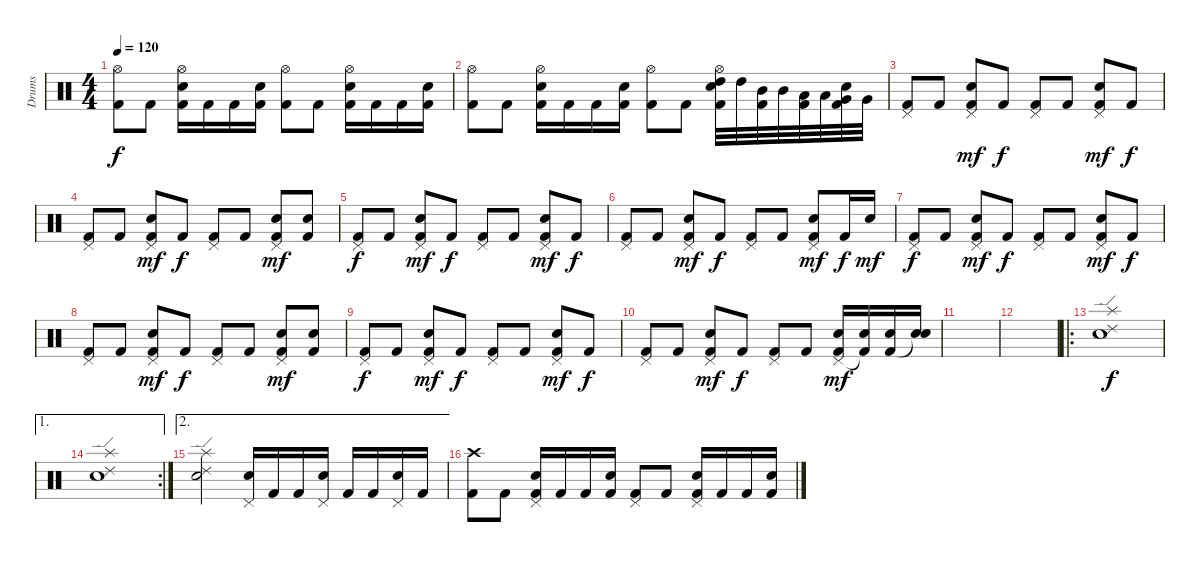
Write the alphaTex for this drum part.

\track ("Drums" "Drums") {instrument percussion}
\staff {score}
\articulation defaults
\ts (4 4)
\tempo 120
\clef neutral
\ks c
("Hi-Hat (open)" "Kick (hit) 2").8{dy f} "Kick (hit) 2".8 ("Hi-Hat (open)" "Electric Snare (hit)" "Kick (hit) 2").16 "Kick (hit) 2".16 "Kick (hit) 2".16 ("Electric Snare (hit)" "Kick (hit) 2").16 ("Hi-Hat (open)" "Kick (hit) 2").8 "Kick (hit) 2".8 ("Hi-Hat (open)" "Electric Snare (hit)" "Kick (hit) 2").16 "Kick (hit) 2".16 "Kick (hit) 2".16 ("Electric Snare (hit)" "Kick (hit) 2").16 |
("Hi-Hat (open)" "Kick (hit) 2").8 "Kick (hit) 2".8 ("Hi-Hat (open)" "Electric Snare (hit)" "Kick (hit) 2").16 "Kick (hit) 2".16 "Kick (hit) 2".16 ("Electric Snare (hit)" "Kick (hit) 2").16 ("Hi-Hat (open)" "Kick (hit) 2").8 "Kick (hit) 2".8 ("Hi-Hat (open)" "Electric Snare (hit)" "High Tom (hit)" "Kick (hit) 2").32 "High Tom (hit)".32 ("Mid Tom (hit)" "Kick (hit) 2").32 "Mid Tom (hit)".32 ("Low Tom (hit)" "Kick (hit) 2").32 "Low Tom (hit)".32 ("Electric Snare (hit)" "Very Low Tom (hit)" "Kick (hit) 2").32 "Very Low Tom (hit)".32 |
("Pedal Hi-Hat (hit)" "Kick (hit) 2").8 "Kick (hit) 2".8 ("Electric Snare (hit)" "Pedal Hi-Hat (hit)" "Kick (hit) 2").8{dy mf} "Kick (hit) 2".8{dy f} ("Pedal Hi-Hat (hit)" "Kick (hit) 2").8 "Kick (hit) 2".8 ("Electric Snare (hit)" "Pedal Hi-Hat (hit)" "Kick (hit) 2").8{dy mf} "Kick (hit) 2".8{dy f} |
("Pedal Hi-Hat (hit)" "Kick (hit) 2").8 "Kick (hit) 2".8 ("Electric Snare (hit)" "Pedal Hi-Hat (hit)" "Kick (hit) 2").8{dy mf} "Kick (hit) 2".8{dy f} ("Pedal Hi-Hat (hit)" "Kick (hit) 2").8 "Kick (hit) 2".8 ("Electric Snare (hit)" "Pedal Hi-Hat (hit)" "Kick (hit) 2").8{dy mf} ("Electric Snare (hit)" "Kick (hit) 2").8 |
("Pedal Hi-Hat (hit)" "Kick (hit) 2").8{dy f} "Kick (hit) 2".8 ("Electric Snare (hit)" "Pedal Hi-Hat (hit)" "Kick (hit) 2").8{dy mf} "Kick (hit) 2".8{dy f} ("Pedal Hi-Hat (hit)" "Kick (hit) 2").8 "Kick (hit) 2".8 ("Electric Snare (hit)" "Pedal Hi-Hat (hit)" "Kick (hit) 2").8{dy mf} "Kick (hit) 2".8{dy f} |
("Pedal Hi-Hat (hit)" "Kick (hit) 2").8 "Kick (hit) 2".8 ("Electric Snare (hit)" "Pedal Hi-Hat (hit)" "Kick (hit) 2").8{dy mf} "Kick (hit) 2".8{dy f} ("Pedal Hi-Hat (hit)" "Kick (hit) 2").8 "Kick (hit) 2".8 ("Electric Snare (hit)" "Pedal Hi-Hat (hit)" "Kick (hit) 2").8{dy mf} "Kick (hit) 2".16{dy f} "Electric Snare (hit)".16{dy mf} |
("Pedal Hi-Hat (hit)" "Kick (hit) 2").8{dy f} "Kick (hit) 2".8 ("Electric Snare (hit)" "Pedal Hi-Hat (hit)" "Kick (hit) 2").8{dy mf} "Kick (hit) 2".8{dy f} ("Pedal Hi-Hat (hit)" "Kick (hit) 2").8 "Kick (hit) 2".8 ("Electric Snare (hit)" "Pedal Hi-Hat (hit)" "Kick (hit) 2").8{dy mf} "Kick (hit) 2".8{dy f} |
("Pedal Hi-Hat (hit)" "Kick (hit) 2").8 "Kick (hit) 2".8 ("Electric Snare (hit)" "Pedal Hi-Hat (hit)" "Kick (hit) 2").8{dy mf} "Kick (hit) 2".8{dy f} ("Pedal Hi-Hat (hit)" "Kick (hit) 2").8 "Kick (hit) 2".8 ("Electric Snare (hit)" "Pedal Hi-Hat (hit)" "Kick (hit) 2").8{dy mf} ("Electric Snare (hit)" "Kick (hit) 2").8 |
("Pedal Hi-Hat (hit)" "Kick (hit) 2").8{dy f} "Kick (hit) 2".8 ("Electric Snare (hit)" "Pedal Hi-Hat (hit)" "Kick (hit) 2").8{dy mf} "Kick (hit) 2".8{dy f} ("Pedal Hi-Hat (hit)" "Kick (hit) 2").8 "Kick (hit) 2".8 ("Electric Snare (hit)" "Pedal Hi-Hat (hit)" "Kick (hit) 2").8{dy mf} "Kick (hit) 2".8{dy f} |
("Pedal Hi-Hat (hit)" "Kick (hit) 2").8 "Kick (hit) 2".8 ("Electric Snare (hit)" "Pedal Hi-Hat (hit)" "Kick (hit) 2").8{dy mf} "Kick (hit) 2".8{dy f} ("Pedal Hi-Hat (hit)" "Kick (hit) 2").8 "Kick (hit) 2".8 ("Electric Snare (hit)" "Pedal Hi-Hat (hit)" "Kick (hit) 2").16{dy mf} ("Electric Snare (hit)" "Kick (hit) 2"{t}).16 ("Electric Snare (hit)" "Kick (hit) 2").16 ("Electric Snare (hit)" "Snare (hit)"{t}).16 |
|
|
\ro
("Splash (hit)" "Ride (edge) 2" "Electric Snare (hit)").1{dy f} |
\ae 1
\rc 2
("Splash (hit)" "Ride (edge) 2" "Electric Snare (hit)").1 |
\ae 2
("Splash (hit)" "Ride (edge) 2" "Electric Snare (hit)").2 ("Pedal Hi-Hat (hit)" "Electric Snare (hit)").16 "Kick (hit) 2".16 "Kick (hit) 2".16 ("Pedal Hi-Hat (hit)" "Electric Snare (hit)").16 "Kick (hit) 2".16 "Kick (hit) 2".16 ("Pedal Hi-Hat (hit)" "Electric Snare (hit)").16 "Kick (hit) 2".16 |
("Crash high (hit)" "Kick (hit) 2").8 "Kick (hit) 2".8 ("Pedal Hi-Hat (hit)" "Electric Snare (hit)" "Kick (hit) 2").16 "Kick (hit) 2".16 "Kick (hit) 2".16 ("Electric Snare (hit)" "Kick (hit) 2").16 ("Pedal Hi-Hat (hit)" "Kick (hit) 2").8 "Kick (hit) 2".8 ("Pedal Hi-Hat (hit)" "Electric Snare (hit)" "Kick (hit) 2").16 "Kick (hit) 2".16 "Kick (hit) 2".16 ("Electric Snare (hit)" "Kick (hit) 2").16
